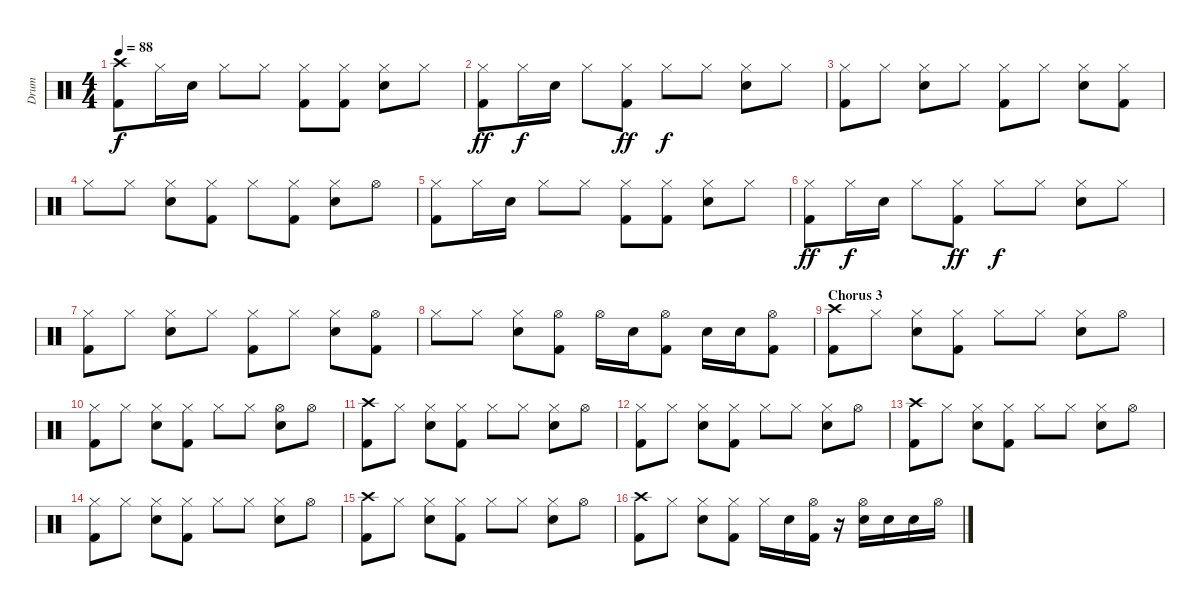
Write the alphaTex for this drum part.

\track ("Drum" "Drum") {instrument percussion}
\staff {score}
\articulation defaults
\ts (4 4)
\tempo 88
\clef neutral
\ks c
("Crash high (hit)" "Kick (hit) 2").8{dy f} "Hi-Hat (closed)".16 "Electric Snare (hit)".16 "Hi-Hat (closed)".8 "Hi-Hat (closed)".8 ("Hi-Hat (closed)" "Kick (hit) 2").8 ("Hi-Hat (closed)" "Kick (hit) 2").8 ("Hi-Hat (closed)" "Electric Snare (hit)").8 "Hi-Hat (closed)".8 |
("Hi-Hat (closed)" "Kick (hit) 2").8{dy ff} "Hi-Hat (closed)".16{dy f} "Electric Snare (hit)".16 "Hi-Hat (closed)".8 ("Hi-Hat (closed)" "Kick (hit) 2").8{dy ff} "Hi-Hat (closed)".8{dy f} "Hi-Hat (closed)".8 ("Hi-Hat (closed)" "Electric Snare (hit)").8 "Hi-Hat (closed)".8 |
("Hi-Hat (closed)" "Kick (hit) 2").8 "Hi-Hat (closed)".8 ("Hi-Hat (closed)" "Electric Snare (hit)").8 "Hi-Hat (closed)".8 ("Hi-Hat (closed)" "Kick (hit) 2").8 "Hi-Hat (closed)".8 ("Hi-Hat (closed)" "Electric Snare (hit)").8 ("Hi-Hat (closed)" "Kick (hit) 2").8 |
"Hi-Hat (closed)".8 "Hi-Hat (closed)".8 ("Hi-Hat (closed)" "Electric Snare (hit)").8 ("Hi-Hat (closed)" "Kick (hit) 2").8 "Hi-Hat (closed)".8 ("Hi-Hat (closed)" "Kick (hit) 2").8 ("Hi-Hat (closed)" "Electric Snare (hit)").8 "Hi-Hat (open)".8 |
("Hi-Hat (closed)" "Kick (hit) 2").8 "Hi-Hat (closed)".16 "Electric Snare (hit)".16 "Hi-Hat (closed)".8 "Hi-Hat (closed)".8 ("Hi-Hat (closed)" "Kick (hit) 2").8 ("Hi-Hat (closed)" "Kick (hit) 2").8 ("Hi-Hat (closed)" "Electric Snare (hit)").8 "Hi-Hat (closed)".8 |
("Hi-Hat (closed)" "Kick (hit) 2").8{dy ff} "Hi-Hat (closed)".16{dy f} "Electric Snare (hit)".16 "Hi-Hat (closed)".8 ("Hi-Hat (closed)" "Kick (hit) 2").8{dy ff} "Hi-Hat (closed)".8{dy f} "Hi-Hat (closed)".8 ("Hi-Hat (closed)" "Electric Snare (hit)").8 "Hi-Hat (closed)".8 |
("Hi-Hat (closed)" "Kick (hit) 2").8 "Hi-Hat (closed)".8 ("Hi-Hat (closed)" "Electric Snare (hit)").8 "Hi-Hat (closed)".8 ("Hi-Hat (closed)" "Kick (hit) 2").8 "Hi-Hat (closed)".8 ("Hi-Hat (closed)" "Electric Snare (hit)").8 ("Hi-Hat (open)" "Kick (hit) 2").8 |
"Hi-Hat (closed)".8 "Hi-Hat (closed)".8 ("Hi-Hat (closed)" "Electric Snare (hit)").8 ("Hi-Hat (open)" "Kick (hit) 2").8 "Hi-Hat (open)".16 "Electric Snare (hit)".16 ("Hi-Hat (open)" "Kick (hit) 2").8 "Electric Snare (hit)".16 "Electric Snare (hit)".16 ("Hi-Hat (open)" "Kick (hit) 2").8 |
\section ("" "Chorus 3")
("Crash high (hit)" "Kick (hit) 2").8 "Hi-Hat (closed)".8 ("Hi-Hat (closed)" "Electric Snare (hit)").8 ("Hi-Hat (closed)" "Kick (hit) 2").8 "Hi-Hat (closed)".8 "Hi-Hat (closed)".8 ("Hi-Hat (closed)" "Electric Snare (hit)").8 "Hi-Hat (open)".8 |
("Hi-Hat (closed)" "Kick (hit) 2").8 "Hi-Hat (closed)".8 ("Hi-Hat (closed)" "Electric Snare (hit)").8 ("Hi-Hat (closed)" "Kick (hit) 2").8 "Hi-Hat (closed)".8 "Hi-Hat (closed)".8 ("Hi-Hat (open)" "Electric Snare (hit)").8 "Hi-Hat (open)".8 |
("Crash high (hit)" "Kick (hit) 2").8 "Hi-Hat (closed)".8 ("Hi-Hat (closed)" "Electric Snare (hit)").8 ("Hi-Hat (closed)" "Kick (hit) 2").8 "Hi-Hat (closed)".8 "Hi-Hat (closed)".8 ("Hi-Hat (closed)" "Electric Snare (hit)").8 "Hi-Hat (open)".8 |
("Hi-Hat (closed)" "Kick (hit) 2").8 "Hi-Hat (closed)".8 ("Hi-Hat (closed)" "Electric Snare (hit)").8 ("Hi-Hat (closed)" "Kick (hit) 2").8 "Hi-Hat (closed)".8 "Hi-Hat (closed)".8 ("Hi-Hat (closed)" "Electric Snare (hit)").8 "Hi-Hat (open)".8 |
("Crash high (hit)" "Kick (hit) 2").8 "Hi-Hat (closed)".8 ("Hi-Hat (closed)" "Electric Snare (hit)").8 ("Hi-Hat (closed)" "Kick (hit) 2").8 "Hi-Hat (closed)".8 "Hi-Hat (closed)".8 ("Hi-Hat (closed)" "Electric Snare (hit)").8 "Hi-Hat (open)".8 |
("Hi-Hat (closed)" "Kick (hit) 2").8 "Hi-Hat (closed)".8 ("Hi-Hat (closed)" "Electric Snare (hit)").8 ("Hi-Hat (closed)" "Kick (hit) 2").8 "Hi-Hat (closed)".8 "Hi-Hat (closed)".8 ("Hi-Hat (closed)" "Electric Snare (hit)").8 "Hi-Hat (open)".8 |
("Crash high (hit)" "Kick (hit) 2").8 "Hi-Hat (closed)".8 ("Hi-Hat (closed)" "Electric Snare (hit)").8 ("Hi-Hat (closed)" "Kick (hit) 2").8 "Hi-Hat (closed)".8 "Hi-Hat (closed)".8 ("Hi-Hat (closed)" "Electric Snare (hit)").8 "Hi-Hat (open)".8 |
("Crash high (hit)" "Kick (hit) 2").8 "Hi-Hat (closed)".8 ("Hi-Hat (closed)" "Electric Snare (hit)").8 ("Hi-Hat (closed)" "Kick (hit) 2").8 "Hi-Hat (closed)".16 "Electric Snare (hit)".16 ("Hi-Hat (open)" "Kick (hit) 2").16 r.16 ("Hi-Hat (open)" "Electric Snare (hit)").16 "Electric Snare (hit)".16 "Electric Snare (hit)".16 "Hi-Hat (open)".16
